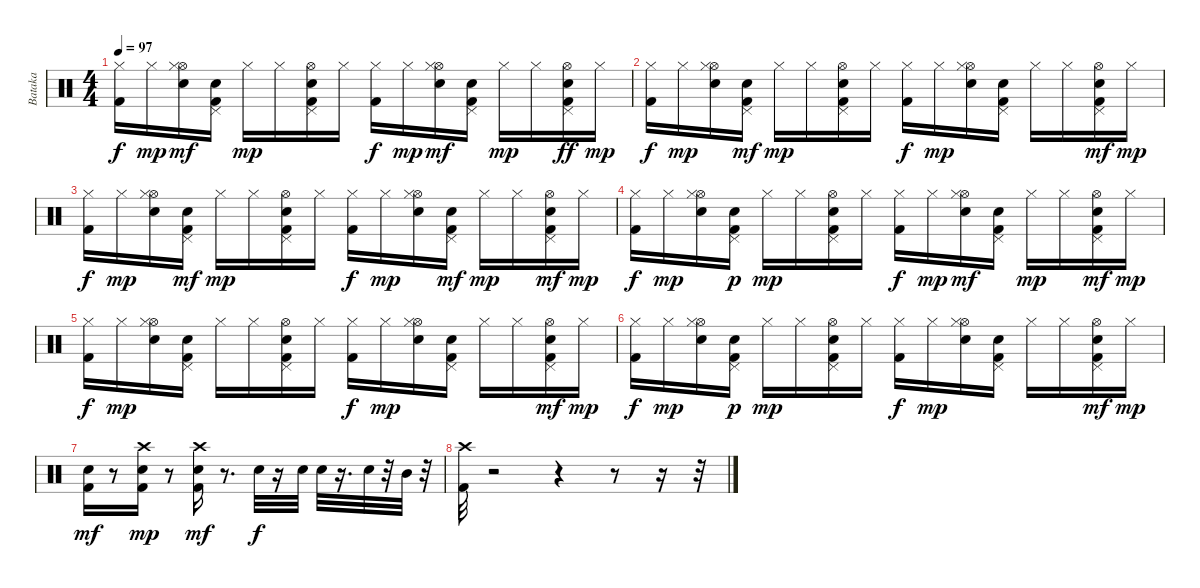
\track ("Bataka" "Bataka") {instrument percussion}
\staff {score}
\articulation defaults
\ts (4 4)
\tempo 97
\clef neutral
\ks c
("Kick (hit) 2" "Hi-Hat (closed)").16{dy f} "Hi-Hat (closed)".16{dy mp} ("Hi-Hat (open)" "Hi-Hat (closed)" "Electric Snare (hit)").16{dy mf} ("Pedal Hi-Hat (hit)" "Kick (hit) 2" "Electric Snare (hit)").16 "Hi-Hat (closed)".16{dy mp} "Hi-Hat (closed)".16 ("Electric Snare (hit)" "Hi-Hat (open)" "Kick (hit) 2" "Pedal Hi-Hat (hit)").16 "Hi-Hat (closed)".16 ("Kick (hit) 2" "Hi-Hat (closed)").16{dy f} "Hi-Hat (closed)".16{dy mp} ("Hi-Hat (open)" "Hi-Hat (closed)" "Electric Snare (hit)").16{dy mf} ("Pedal Hi-Hat (hit)" "Kick (hit) 2" "Electric Snare (hit)").16 "Hi-Hat (closed)".16{dy mp} "Hi-Hat (closed)".16 ("Hi-Hat (open)" "Pedal Hi-Hat (hit)" "Kick (hit) 2" "Electric Snare (hit)").16{dy ff} "Hi-Hat (closed)".16{dy mp} |
("Kick (hit) 2" "Hi-Hat (closed)").16{dy f} "Hi-Hat (closed)".16{dy mp} ("Hi-Hat (open)" "Hi-Hat (closed)" "Electric Snare (hit)").16 ("Pedal Hi-Hat (hit)" "Kick (hit) 2" "Electric Snare (hit)").16{dy mf} "Hi-Hat (closed)".16{dy mp} "Hi-Hat (closed)".16 ("Hi-Hat (open)" "Kick (hit) 2" "Pedal Hi-Hat (hit)" "Electric Snare (hit)").16 "Hi-Hat (closed)".16 ("Kick (hit) 2" "Hi-Hat (closed)").16{dy f} "Hi-Hat (closed)".16{dy mp} ("Hi-Hat (open)" "Hi-Hat (closed)" "Electric Snare (hit)").16 ("Pedal Hi-Hat (hit)" "Kick (hit) 2" "Electric Snare (hit)").16 "Hi-Hat (closed)".16 "Hi-Hat (closed)".16 ("Hi-Hat (open)" "Pedal Hi-Hat (hit)" "Kick (hit) 2" "Electric Snare (hit)").16{dy mf} "Hi-Hat (closed)".16{dy mp} |
("Kick (hit) 2" "Hi-Hat (closed)").16{dy f} "Hi-Hat (closed)".16{dy mp} ("Hi-Hat (open)" "Hi-Hat (closed)" "Electric Snare (hit)").16 ("Pedal Hi-Hat (hit)" "Kick (hit) 2" "Electric Snare (hit)").16{dy mf} "Hi-Hat (closed)".16{dy mp} "Hi-Hat (closed)".16 ("Hi-Hat (open)" "Kick (hit) 2" "Pedal Hi-Hat (hit)" "Electric Snare (hit)").16 "Hi-Hat (closed)".16 ("Kick (hit) 2" "Hi-Hat (closed)").16{dy f} "Hi-Hat (closed)".16{dy mp} ("Electric Snare (hit)" "Hi-Hat (open)" "Hi-Hat (closed)").16 ("Pedal Hi-Hat (hit)" "Kick (hit) 2" "Electric Snare (hit)").16{dy mf} "Hi-Hat (closed)".16{dy mp} "Hi-Hat (closed)".16 ("Hi-Hat (open)" "Pedal Hi-Hat (hit)" "Kick (hit) 2" "Electric Snare (hit)").16{dy mf} "Hi-Hat (closed)".16{dy mp} |
("Kick (hit) 2" "Hi-Hat (closed)").16{dy f} "Hi-Hat (closed)".16{dy mp} ("Electric Snare (hit)" "Hi-Hat (open)" "Hi-Hat (closed)").16 ("Electric Snare (hit)" "Pedal Hi-Hat (hit)" "Kick (hit) 2").16{dy p} "Hi-Hat (closed)".16{dy mp} "Hi-Hat (closed)".16 ("Hi-Hat (open)" "Kick (hit) 2" "Pedal Hi-Hat (hit)" "Electric Snare (hit)").16 "Hi-Hat (closed)".16 ("Kick (hit) 2" "Hi-Hat (closed)").16{dy f} "Hi-Hat (closed)".16{dy mp} ("Hi-Hat (open)" "Hi-Hat (closed)" "Electric Snare (hit)").16{dy mf} ("Pedal Hi-Hat (hit)" "Kick (hit) 2" "Electric Snare (hit)").16 "Hi-Hat (closed)".16{dy mp} "Hi-Hat (closed)".16 ("Hi-Hat (open)" "Pedal Hi-Hat (hit)" "Kick (hit) 2" "Electric Snare (hit)").16{dy mf} "Hi-Hat (closed)".16{dy mp} |
("Kick (hit) 2" "Hi-Hat (closed)").16{dy f} "Hi-Hat (closed)".16{dy mp} ("Hi-Hat (open)" "Hi-Hat (closed)" "Electric Snare (hit)").16 ("Pedal Hi-Hat (hit)" "Kick (hit) 2" "Electric Snare (hit)").16 "Hi-Hat (closed)".16 "Hi-Hat (closed)".16 ("Hi-Hat (open)" "Kick (hit) 2" "Pedal Hi-Hat (hit)" "Electric Snare (hit)").16 "Hi-Hat (closed)".16 ("Kick (hit) 2" "Hi-Hat (closed)").16{dy f} "Hi-Hat (closed)".16{dy mp} ("Electric Snare (hit)" "Hi-Hat (open)" "Hi-Hat (closed)").16 ("Electric Snare (hit)" "Pedal Hi-Hat (hit)" "Kick (hit) 2").16 "Hi-Hat (closed)".16 "Hi-Hat (closed)".16 ("Electric Snare (hit)" "Hi-Hat (open)" "Pedal Hi-Hat (hit)" "Kick (hit) 2").16{dy mf} "Hi-Hat (closed)".16{dy mp} |
("Kick (hit) 2" "Hi-Hat (closed)").16{dy f} "Hi-Hat (closed)".16{dy mp} ("Electric Snare (hit)" "Hi-Hat (open)" "Hi-Hat (closed)").16 ("Electric Snare (hit)" "Pedal Hi-Hat (hit)" "Kick (hit) 2").16{dy p} "Hi-Hat (closed)".16{dy mp} "Hi-Hat (closed)".16 ("Hi-Hat (open)" "Kick (hit) 2" "Pedal Hi-Hat (hit)" "Electric Snare (hit)").16 "Hi-Hat (closed)".16 ("Kick (hit) 2" "Hi-Hat (closed)").16{dy f} "Hi-Hat (closed)".16{dy mp} ("Electric Snare (hit)" "Hi-Hat (open)" "Hi-Hat (closed)").16 ("Electric Snare (hit)" "Pedal Hi-Hat (hit)" "Kick (hit) 2").16 "Hi-Hat (closed)".16 "Hi-Hat (closed)".16 ("Hi-Hat (open)" "Pedal Hi-Hat (hit)" "Kick (hit) 2" "Electric Snare (hit)").16{dy mf} "Hi-Hat (closed)".16{dy mp} |
("Kick (hit) 2" "Snare (hit) 2").16{dy mf} r.8 ("Kick (hit) 2" "Snare (hit) 2" "Crash high (hit)").16{dy mp} r.8 ("Crash high (hit)" "Kick (hit) 2" "Snare (hit) 2").16{dy mf} r.8{d} "Snare (hit) 2".32{dy f} r.16 "Snare (hit) 2".32 "Snare (hit) 2".32 r.16{d} "Snare (hit) 2".32 r.32 "Mid Tom (hit)".32 r.32 |
("Crash high (hit)" "Kick (hit) 2").32 r.2 r.4 r.8 r.16 r.32
